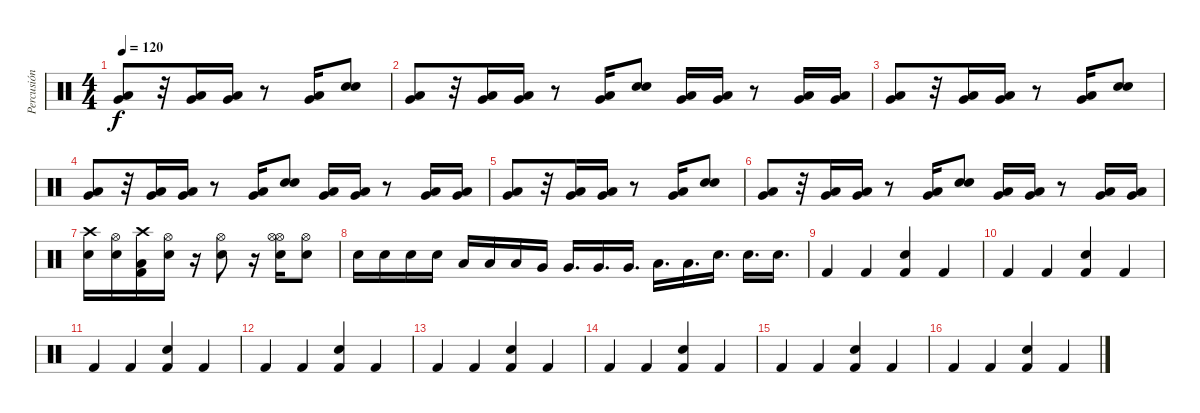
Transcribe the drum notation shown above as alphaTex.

\track ("Percusión" "Percusión") {instrument percussion}
\staff {score}
\articulation defaults
\ts (4 4)
\tempo 120
\clef neutral
\ks c
("Low Floor Tom (hit)" "Very Low Tom (hit)").8{dy f} r.32 ("Low Floor Tom (hit)" "Very Low Tom (hit)").16 ("Low Floor Tom (hit)" "Very Low Tom (hit)").16 r.8 ("Low Floor Tom (hit)" "Very Low Tom (hit)").16 ("Electric Snare (hit)" "Snare (hit) 2").8 |
("Low Floor Tom (hit)" "Very Low Tom (hit)").8 r.32 ("Low Floor Tom (hit)" "Very Low Tom (hit)").16 ("Low Floor Tom (hit)" "Very Low Tom (hit)").16 r.8 ("Low Floor Tom (hit)" "Very Low Tom (hit)").16 ("Electric Snare (hit)" "Snare (hit) 2").8 ("Low Floor Tom (hit)" "Very Low Tom (hit)").16 ("Low Floor Tom (hit)" "Very Low Tom (hit)").16 r.8 ("Low Floor Tom (hit)" "Very Low Tom (hit)").16 ("Low Floor Tom (hit)" "Very Low Tom (hit)").16 |
("Low Floor Tom (hit)" "Very Low Tom (hit)").8 r.32 ("Low Floor Tom (hit)" "Very Low Tom (hit)").16 ("Low Floor Tom (hit)" "Very Low Tom (hit)").16 r.8 ("Low Floor Tom (hit)" "Very Low Tom (hit)").16 ("Electric Snare (hit)" "Snare (hit) 2").8 |
("Low Floor Tom (hit)" "Very Low Tom (hit)").8 r.32 ("Low Floor Tom (hit)" "Very Low Tom (hit)").16 ("Low Floor Tom (hit)" "Very Low Tom (hit)").16 r.8 ("Low Floor Tom (hit)" "Very Low Tom (hit)").16 ("Electric Snare (hit)" "Snare (hit) 2").8 ("Low Floor Tom (hit)" "Very Low Tom (hit)").16 ("Low Floor Tom (hit)" "Very Low Tom (hit)").16 r.8 ("Low Floor Tom (hit)" "Very Low Tom (hit)").16 ("Low Floor Tom (hit)" "Very Low Tom (hit)").16 |
("Low Floor Tom (hit)" "Very Low Tom (hit)").8 r.32 ("Low Floor Tom (hit)" "Very Low Tom (hit)").16 ("Low Floor Tom (hit)" "Very Low Tom (hit)").16 r.8 ("Low Floor Tom (hit)" "Very Low Tom (hit)").16 ("Electric Snare (hit)" "Snare (hit) 2").8 |
("Low Floor Tom (hit)" "Very Low Tom (hit)").8 r.32 ("Low Floor Tom (hit)" "Very Low Tom (hit)").16 ("Low Floor Tom (hit)" "Very Low Tom (hit)").16 r.8 ("Low Floor Tom (hit)" "Very Low Tom (hit)").16 ("Electric Snare (hit)" "Snare (hit) 2").8 ("Low Floor Tom (hit)" "Very Low Tom (hit)").16 ("Low Floor Tom (hit)" "Very Low Tom (hit)").16 r.8 ("Low Floor Tom (hit)" "Very Low Tom (hit)").16 ("Low Floor Tom (hit)" "Very Low Tom (hit)").16 |
("Snare (hit) 2" "Crash high (hit)").16 ("Snare (hit) 2" "Hi-Hat (open)").16 ("Kick (hit) 2" "Low Floor Tom (hit)" "Crash high (hit)").16 ("Snare (hit) 2" "Hi-Hat (open)").16 r.16 ("Snare (hit) 2" "Hi-Hat (open)").8 r.16 ("Snare (hit) 2" "Hi-Hat (open)" "Hi-Hat (open)").16 ("Snare (hit) 2" "Hi-Hat (open)").8 |
"Snare (hit) 2".16 "Snare (hit) 2".16 "Snare (hit) 2".16 "Snare (hit) 2".16 "Low Floor Tom (hit)".16 "Low Floor Tom (hit)".16 "Low Floor Tom (hit)".16 "Very Low Tom (hit)".16 "Very Low Tom (hit)".16{d} "Very Low Tom (hit)".16{d} "Very Low Tom (hit)".16{d} "Low Tom (hit)".16{d} "Low Tom (hit)".16{d} "Electric Snare (hit)".16{d} "Electric Snare (hit)".16{d} "Electric Snare (hit)".16{d} |
"Kick (hit) 2".4 "Kick (hit) 2".4 ("Kick (hit) 2" "Snare (hit) 2").4 "Kick (hit) 2".4 |
"Kick (hit) 2".4 "Kick (hit) 2".4 ("Kick (hit) 2" "Snare (hit) 2").4 "Kick (hit) 2".4 |
"Kick (hit) 2".4 "Kick (hit) 2".4 ("Kick (hit) 2" "Snare (hit) 2").4 "Kick (hit) 2".4 |
"Kick (hit) 2".4 "Kick (hit) 2".4 ("Kick (hit) 2" "Snare (hit) 2").4 "Kick (hit) 2".4 |
"Kick (hit) 2".4 "Kick (hit) 2".4 ("Kick (hit) 2" "Snare (hit) 2").4 "Kick (hit) 2".4 |
"Kick (hit) 2".4 "Kick (hit) 2".4 ("Kick (hit) 2" "Snare (hit) 2").4 "Kick (hit) 2".4 |
"Kick (hit) 2".4 "Kick (hit) 2".4 ("Kick (hit) 2" "Snare (hit) 2").4 "Kick (hit) 2".4 |
"Kick (hit) 2".4 "Kick (hit) 2".4 ("Kick (hit) 2" "Snare (hit) 2").4 "Kick (hit) 2".4
